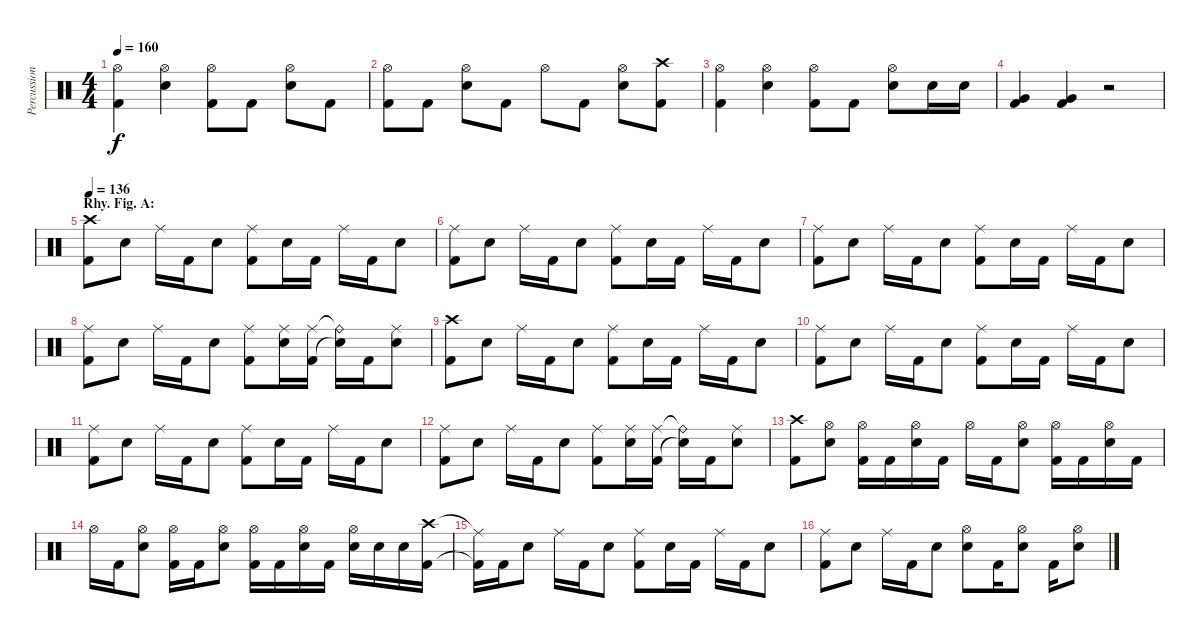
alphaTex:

\track ("Percussion" "Percussion") {instrument percussion}
\staff {score}
\articulation defaults
\ts (4 4)
\tempo 160
\clef neutral
\ks c
("Hi-Hat (open)" "Kick (hit) 2").4{dy f} ("Hi-Hat (open)" "Electric Snare (hit)").4 ("Hi-Hat (open)" "Kick (hit) 2").8 "Kick (hit) 2".8 ("Hi-Hat (open)" "Electric Snare (hit)").8 "Kick (hit) 2".8 |
("Hi-Hat (open)" "Kick (hit) 2").8 "Kick (hit) 2".8 ("Hi-Hat (open)" "Electric Snare (hit)").8 "Kick (hit) 2".8 "Hi-Hat (open)".8 "Kick (hit) 2".8 ("Hi-Hat (open)" "Electric Snare (hit)").8 ("Crash high (hit)" "Kick (hit) 2").8 |
("Hi-Hat (open)" "Kick (hit) 2").4 ("Hi-Hat (open)" "Electric Snare (hit)").4 ("Hi-Hat (open)" "Kick (hit) 2").8 "Kick (hit) 2".8 ("Hi-Hat (open)" "Electric Snare (hit)").8 "Electric Snare (hit)".16 "Electric Snare (hit)".16 |
("Very Low Tom (hit)" "Kick (hit) 2").4 ("Very Low Tom (hit)" "Kick (hit) 2").4 r.2 |
\section ("" "Rhy. Fig. A:")
\tempo 136
("Crash high (hit)" "Kick (hit) 2").8 "Electric Snare (hit)".8 "Ride (middle)".16 "Kick (hit) 2".16 "Electric Snare (hit)".8 ("Ride (middle)" "Kick (hit) 2").8 "Electric Snare (hit)".16 "Kick (hit) 2".16 "Ride (middle)".16 "Kick (hit) 2".16 "Electric Snare (hit)".8 |
("Ride (middle)" "Kick (hit) 2").8 "Electric Snare (hit)".8 "Ride (middle)".16 "Kick (hit) 2".16 "Electric Snare (hit)".8 ("Ride (middle)" "Kick (hit) 2").8 "Electric Snare (hit)".16 "Kick (hit) 2".16 "Ride (middle)".16 "Kick (hit) 2".16 "Electric Snare (hit)".8 |
("Ride (middle)" "Kick (hit) 2").8 "Electric Snare (hit)".8 "Ride (middle)".16 "Kick (hit) 2".16 "Electric Snare (hit)".8 ("Ride (middle)" "Kick (hit) 2").8 "Electric Snare (hit)".16 "Kick (hit) 2".16 "Ride (middle)".16 "Kick (hit) 2".16 "Electric Snare (hit)".8 |
("Ride (middle)" "Kick (hit) 2").8 "Electric Snare (hit)".8 "Ride (middle)".16 "Kick (hit) 2".16 "Electric Snare (hit)".8 ("Ride (middle)" "Kick (hit) 2").8 ("Ride (middle)" "Electric Snare (hit)").16 ("Ride (middle)" "Kick (hit) 2").16 ("Ride (bell)"{t} "Snare (hit)"{t}).16 "Kick (hit) 2".16 ("Ride (middle)" "Electric Snare (hit)").8 |
("Crash high (hit)" "Kick (hit) 2").8 "Electric Snare (hit)".8 "Ride (middle)".16 "Kick (hit) 2".16 "Electric Snare (hit)".8 ("Ride (middle)" "Kick (hit) 2").8 "Electric Snare (hit)".16 "Kick (hit) 2".16 "Ride (middle)".16 "Kick (hit) 2".16 "Electric Snare (hit)".8 |
("Ride (middle)" "Kick (hit) 2").8 "Electric Snare (hit)".8 "Ride (middle)".16 "Kick (hit) 2".16 "Electric Snare (hit)".8 ("Ride (middle)" "Kick (hit) 2").8 "Electric Snare (hit)".16 "Kick (hit) 2".16 "Ride (middle)".16 "Kick (hit) 2".16 "Electric Snare (hit)".8 |
("Ride (middle)" "Kick (hit) 2").8 "Electric Snare (hit)".8 "Ride (middle)".16 "Kick (hit) 2".16 "Electric Snare (hit)".8 ("Ride (middle)" "Kick (hit) 2").8 "Electric Snare (hit)".16 "Kick (hit) 2".16 "Ride (middle)".16 "Kick (hit) 2".16 "Electric Snare (hit)".8 |
("Ride (middle)" "Kick (hit) 2").8 "Electric Snare (hit)".8 "Ride (middle)".16 "Kick (hit) 2".16 "Electric Snare (hit)".8 ("Ride (middle)" "Kick (hit) 2").8 ("Ride (middle)" "Electric Snare (hit)").16 ("Ride (middle)" "Kick (hit) 2").16 ("Ride (bell)"{t} "Snare (hit)"{t}).16 "Kick (hit) 2".16 ("Ride (middle)" "Electric Snare (hit)").8 |
("Crash high (hit)" "Kick (hit) 2").8 ("Hi-Hat (open)" "Electric Snare (hit)").8 ("Hi-Hat (open)" "Kick (hit) 2").16 "Kick (hit) 2".16 ("Hi-Hat (open)" "Electric Snare (hit)").16 "Kick (hit) 2".16 "Hi-Hat (open)".16 "Kick (hit) 2".16 ("Hi-Hat (open)" "Electric Snare (hit)").8 ("Hi-Hat (open)" "Kick (hit) 2").16 "Kick (hit) 2".16 ("Hi-Hat (open)" "Electric Snare (hit)").16 "Kick (hit) 2".16 |
"Hi-Hat (open)".16 "Kick (hit) 2".16 ("Hi-Hat (open)" "Electric Snare (hit)").8 ("Hi-Hat (open)" "Kick (hit) 2").16 "Kick (hit) 2".16 ("Hi-Hat (open)" "Electric Snare (hit)").8 ("Hi-Hat (open)" "Kick (hit) 2").16 "Kick (hit) 2".16 ("Hi-Hat (open)" "Electric Snare (hit)").16 "Kick (hit) 2".16 ("Hi-Hat (open)" "Electric Snare (hit)").16 "Electric Snare (hit)".16 "Electric Snare (hit)".16 ("Crash high (hit)" "Kick (hit) 2").16 |
("Ride (middle)"{t} "Kick (hit) 2"{t}).16 "Kick (hit) 2".16 "Electric Snare (hit)".8 "Ride (middle)".16 "Kick (hit) 2".16 "Electric Snare (hit)".8 ("Ride (middle)" "Kick (hit) 2").8 "Electric Snare (hit)".16 "Kick (hit) 2".16 "Ride (middle)".16 "Kick (hit) 2".16 "Electric Snare (hit)".8 |
("Ride (middle)" "Kick (hit) 2").8 "Electric Snare (hit)".8 "Ride (middle)".16 "Kick (hit) 2".16 "Electric Snare (hit)".8 ("Hi-Hat (open)" "Electric Snare (hit)").8 "Kick (hit) 2".16 ("Hi-Hat (open)" "Electric Snare (hit)").8 "Kick (hit) 2".16 ("Hi-Hat (open)" "Electric Snare (hit)").8
